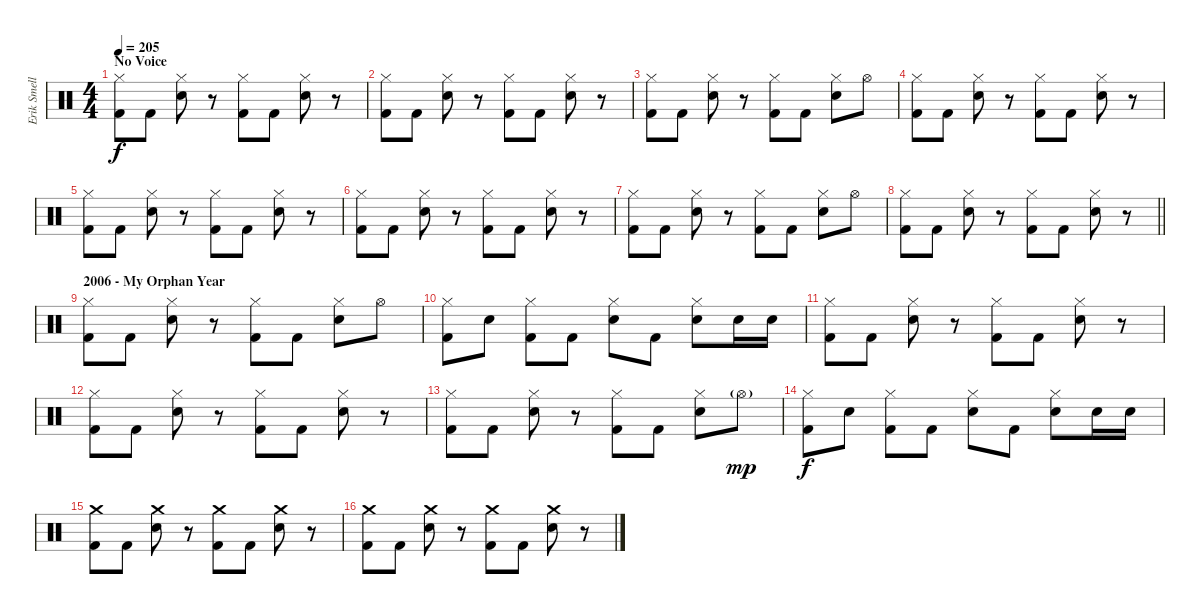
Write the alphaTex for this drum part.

\track ("Erik Smelly" "Erik Smell") {instrument percussion}
\staff {score}
\articulation defaults
\ts (4 4)
\section ("" "No Voice")
\tempo 205
\clef neutral
\ks c
("Hi-Hat (closed)" "Kick (hit) 2").8{dy f} "Kick (hit) 2".8 ("Hi-Hat (closed)" "Electric Snare (hit)").8 r.8 ("Hi-Hat (closed)" "Kick (hit) 2").8 "Kick (hit) 2".8 ("Hi-Hat (closed)" "Electric Snare (hit)").8 r.8 |
("Hi-Hat (closed)" "Kick (hit) 2").8 "Kick (hit) 2".8 ("Hi-Hat (closed)" "Electric Snare (hit)").8 r.8 ("Hi-Hat (closed)" "Kick (hit) 2").8 "Kick (hit) 2".8 ("Hi-Hat (closed)" "Electric Snare (hit)").8 r.8 |
("Hi-Hat (closed)" "Kick (hit) 2").8 "Kick (hit) 2".8 ("Hi-Hat (closed)" "Electric Snare (hit)").8 r.8 ("Hi-Hat (closed)" "Kick (hit) 2").8 "Kick (hit) 2".8 ("Hi-Hat (closed)" "Electric Snare (hit)").8 "Hi-Hat (open)".8 |
("Hi-Hat (closed)" "Kick (hit) 2").8 "Kick (hit) 2".8 ("Hi-Hat (closed)" "Electric Snare (hit)").8 r.8 ("Hi-Hat (closed)" "Kick (hit) 2").8 "Kick (hit) 2".8 ("Hi-Hat (closed)" "Electric Snare (hit)").8 r.8 |
("Hi-Hat (closed)" "Kick (hit) 2").8 "Kick (hit) 2".8 ("Hi-Hat (closed)" "Electric Snare (hit)").8 r.8 ("Hi-Hat (closed)" "Kick (hit) 2").8 "Kick (hit) 2".8 ("Hi-Hat (closed)" "Electric Snare (hit)").8 r.8 |
("Hi-Hat (closed)" "Kick (hit) 2").8 "Kick (hit) 2".8 ("Hi-Hat (closed)" "Electric Snare (hit)").8 r.8 ("Hi-Hat (closed)" "Kick (hit) 2").8 "Kick (hit) 2".8 ("Hi-Hat (closed)" "Electric Snare (hit)").8 r.8 |
("Hi-Hat (closed)" "Kick (hit) 2").8 "Kick (hit) 2".8 ("Hi-Hat (closed)" "Electric Snare (hit)").8 r.8 ("Hi-Hat (closed)" "Kick (hit) 2").8 "Kick (hit) 2".8 ("Hi-Hat (closed)" "Electric Snare (hit)").8 "Hi-Hat (open)".8 |
\barLineRight lightlight
("Hi-Hat (closed)" "Kick (hit) 2").8 "Kick (hit) 2".8 ("Hi-Hat (closed)" "Electric Snare (hit)").8 r.8 ("Hi-Hat (closed)" "Kick (hit) 2").8 "Kick (hit) 2".8 ("Hi-Hat (closed)" "Electric Snare (hit)").8 r.8 |
\section ("" "2006 - My Orphan Year")
("Hi-Hat (closed)" "Kick (hit) 2").8 "Kick (hit) 2".8 ("Hi-Hat (closed)" "Electric Snare (hit)").8 r.8 ("Hi-Hat (closed)" "Kick (hit) 2").8 "Kick (hit) 2".8 ("Hi-Hat (closed)" "Electric Snare (hit)").8 "Hi-Hat (open)".8 |
("Hi-Hat (closed)" "Kick (hit) 2").8 "Electric Snare (hit)".8 ("Hi-Hat (closed)" "Kick (hit) 2").8 "Kick (hit) 2".8 ("Hi-Hat (closed)" "Electric Snare (hit)").8 "Kick (hit) 2".8 ("Hi-Hat (closed)" "Electric Snare (hit)").8 "Electric Snare (hit)".16 "Electric Snare (hit)".16 |
("Hi-Hat (closed)" "Kick (hit) 2").8 "Kick (hit) 2".8 ("Hi-Hat (closed)" "Electric Snare (hit)").8 r.8 ("Hi-Hat (closed)" "Kick (hit) 2").8 "Kick (hit) 2".8 ("Hi-Hat (closed)" "Electric Snare (hit)").8 r.8 |
("Hi-Hat (closed)" "Kick (hit) 2").8 "Kick (hit) 2".8 ("Hi-Hat (closed)" "Electric Snare (hit)").8 r.8 ("Hi-Hat (closed)" "Kick (hit) 2").8 "Kick (hit) 2".8 ("Hi-Hat (closed)" "Electric Snare (hit)").8 r.8 |
("Hi-Hat (closed)" "Kick (hit) 2").8 "Kick (hit) 2".8 ("Hi-Hat (closed)" "Electric Snare (hit)").8 r.8 ("Hi-Hat (closed)" "Kick (hit) 2").8 "Kick (hit) 2".8 ("Hi-Hat (closed)" "Electric Snare (hit)").8 "Hi-Hat (open)"{g}.8{dy mp} |
("Hi-Hat (closed)" "Kick (hit) 2").8{dy f} "Electric Snare (hit)".8 ("Hi-Hat (closed)" "Kick (hit) 2").8 "Kick (hit) 2".8 ("Hi-Hat (closed)" "Electric Snare (hit)").8 "Kick (hit) 2".8 ("Hi-Hat (closed)" "Electric Snare (hit)").8 "Electric Snare (hit)".16 "Electric Snare (hit)".16 |
("Crash medium (hit)" "Kick (hit) 2").8 "Kick (hit) 2".8 ("Crash medium (hit)" "Electric Snare (hit)").8 r.8 ("Crash medium (hit)" "Kick (hit) 2").8 "Kick (hit) 2".8 ("Crash medium (hit)" "Electric Snare (hit)").8 r.8 |
("Crash medium (hit)" "Kick (hit) 2").8 "Kick (hit) 2".8 ("Crash medium (hit)" "Electric Snare (hit)").8 r.8 ("Crash medium (hit)" "Kick (hit) 2").8 "Kick (hit) 2".8 ("Crash medium (hit)" "Electric Snare (hit)").8 r.8
